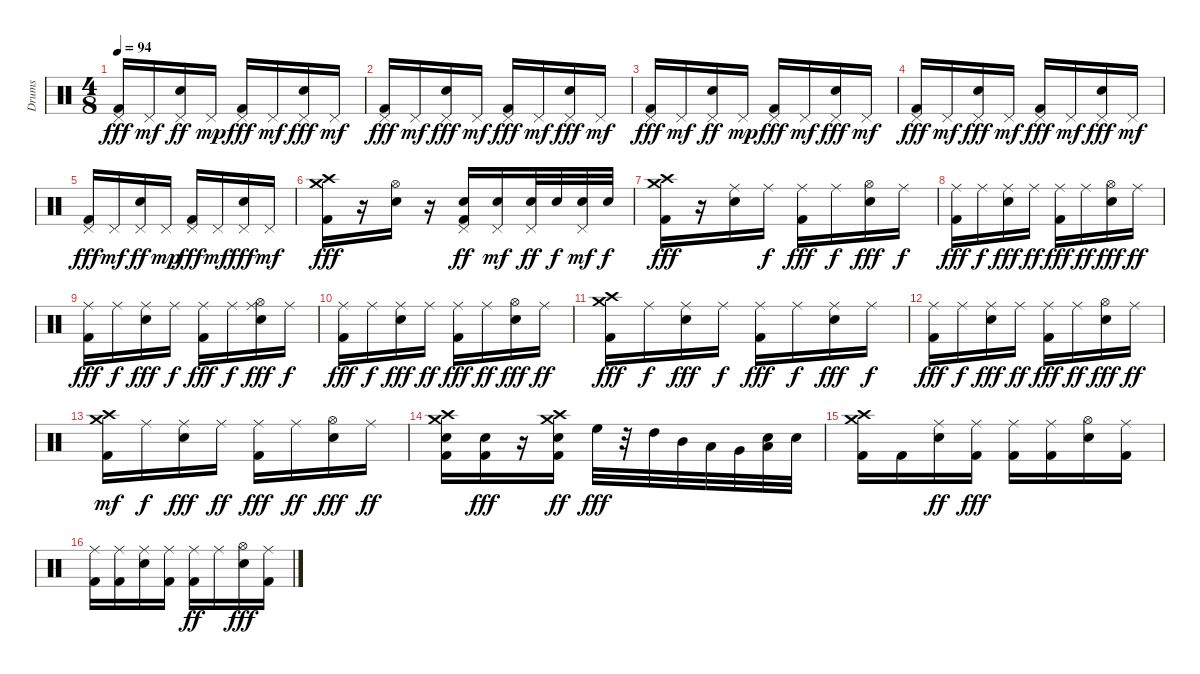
\track ("Drums" "Drums") {instrument percussion}
\staff {score}
\articulation defaults
\ts (4 8)
\tempo 94
\clef neutral
\ks c
("Pedal Hi-Hat (hit)" "Kick (hit) 2").16{dy fff} "Pedal Hi-Hat (hit)".16{dy mf} ("Electric Snare (hit)" "Pedal Hi-Hat (hit)").16{dy ff} "Pedal Hi-Hat (hit)".16{dy mp} ("Pedal Hi-Hat (hit)" "Kick (hit) 2").16{dy fff} "Pedal Hi-Hat (hit)".16{dy mf} ("Pedal Hi-Hat (hit)" "Electric Snare (hit)").16{dy fff} "Pedal Hi-Hat (hit)".16{dy mf} |
("Pedal Hi-Hat (hit)" "Kick (hit) 2").16{dy fff} "Pedal Hi-Hat (hit)".16{dy mf} ("Pedal Hi-Hat (hit)" "Electric Snare (hit)").16{dy fff} "Pedal Hi-Hat (hit)".16{dy mf} ("Pedal Hi-Hat (hit)" "Kick (hit) 2").16{dy fff} "Pedal Hi-Hat (hit)".16{dy mf} ("Pedal Hi-Hat (hit)" "Electric Snare (hit)").16{dy fff} "Pedal Hi-Hat (hit)".16{dy mf} |
("Pedal Hi-Hat (hit)" "Kick (hit) 2").16{dy fff} "Pedal Hi-Hat (hit)".16{dy mf} ("Electric Snare (hit)" "Pedal Hi-Hat (hit)").16{dy ff} "Pedal Hi-Hat (hit)".16{dy mp} ("Pedal Hi-Hat (hit)" "Kick (hit) 2").16{dy fff} "Pedal Hi-Hat (hit)".16{dy mf} ("Pedal Hi-Hat (hit)" "Electric Snare (hit)").16{dy fff} "Pedal Hi-Hat (hit)".16{dy mf} |
("Pedal Hi-Hat (hit)" "Kick (hit) 2").16{dy fff} "Pedal Hi-Hat (hit)".16{dy mf} ("Pedal Hi-Hat (hit)" "Electric Snare (hit)").16{dy fff} "Pedal Hi-Hat (hit)".16{dy mf} ("Pedal Hi-Hat (hit)" "Kick (hit) 2").16{dy fff} "Pedal Hi-Hat (hit)".16{dy mf} ("Pedal Hi-Hat (hit)" "Electric Snare (hit)").16{dy fff} "Pedal Hi-Hat (hit)".16{dy mf} |
("Pedal Hi-Hat (hit)" "Kick (hit) 2").16{dy fff} "Pedal Hi-Hat (hit)".16{dy mf} ("Electric Snare (hit)" "Pedal Hi-Hat (hit)").16{dy ff} "Pedal Hi-Hat (hit)".16{dy mp} ("Pedal Hi-Hat (hit)" "Kick (hit) 2").16{dy fff} "Pedal Hi-Hat (hit)".16{dy mf} ("Pedal Hi-Hat (hit)" "Electric Snare (hit)").16{dy fff} "Pedal Hi-Hat (hit)".16{dy mf} |
("Crash medium (hit)" "Crash high (hit)" "Kick (hit) 2").16{dy fff} r.16 ("Hi-Hat (open)" "Electric Snare (hit)").16 r.16 ("Kick (hit) 2" "Electric Snare (hit)" "Pedal Hi-Hat (hit)").16{dy ff} ("Electric Snare (hit)" "Pedal Hi-Hat (hit)").16{dy mf} ("Electric Snare (hit)" "Pedal Hi-Hat (hit)").32{dy ff} "Electric Snare (hit)".32{dy f} ("Electric Snare (hit)" "Pedal Hi-Hat (hit)").32{dy mf} "Electric Snare (hit)".32{dy f} |
("Crash medium (hit)" "Crash high (hit)" "Kick (hit) 2").16{dy fff} r.16 ("Ride (middle)" "Electric Snare (hit)").16 "Ride (middle)".16{dy f} ("Ride (middle)" "Kick (hit) 2").16{dy fff} "Ride (middle)".16{dy f} ("Hi-Hat (open)" "Electric Snare (hit)").16{dy fff} "Ride (middle)".16{dy f} |
("Ride (middle)" "Kick (hit) 2").16{dy fff} "Ride (middle)".16{dy f} ("Ride (middle)" "Electric Snare (hit)").16{dy fff} "Ride (middle)".16{dy ff} ("Ride (middle)" "Kick (hit) 2").16{dy fff} "Ride (middle)".16{dy ff} ("Hi-Hat (open)" "Electric Snare (hit)").16{dy fff} "Ride (middle)".16{dy ff} |
("Ride (middle)" "Kick (hit) 2").16{dy fff} "Ride (middle)".16{dy f} ("Ride (middle)" "Electric Snare (hit)").16{dy fff} "Ride (middle)".16{dy f} ("Ride (middle)" "Kick (hit) 2").16{dy fff} "Ride (middle)".16{dy f} ("Hi-Hat (open)" "Ride (middle)" "Electric Snare (hit)").16{dy fff} "Ride (middle)".16{dy f} |
("Ride (middle)" "Kick (hit) 2").16{dy fff} "Ride (middle)".16{dy f} ("Ride (middle)" "Electric Snare (hit)").16{dy fff} "Ride (middle)".16{dy ff} ("Ride (middle)" "Kick (hit) 2").16{dy fff} "Ride (middle)".16{dy ff} ("Hi-Hat (open)" "Electric Snare (hit)").16{dy fff} "Ride (middle)".16{dy ff} |
("Crash medium (hit)" "Crash high (hit)" "Kick (hit) 2").16{dy fff} "Ride (middle)".16{dy f} ("Ride (middle)" "Electric Snare (hit)").16{dy fff} "Ride (middle)".16{dy f} ("Ride (middle)" "Kick (hit) 2").16{dy fff} "Ride (middle)".16{dy f} ("Ride (middle)" "Electric Snare (hit)").16{dy fff} "Ride (middle)".16{dy f} |
("Ride (middle)" "Kick (hit) 2").16{dy fff} "Ride (middle)".16{dy f} ("Ride (middle)" "Electric Snare (hit)").16{dy fff} "Ride (middle)".16{dy ff} ("Ride (middle)" "Kick (hit) 2").16{dy fff} "Ride (middle)".16{dy ff} ("Hi-Hat (open)" "Electric Snare (hit)").16{dy fff} "Ride (middle)".16{dy ff} |
("Crash high (hit)" "Kick (hit) 2" "Crash medium (hit)").16{dy mf} "Ride (middle)".16{dy f} ("Ride (middle)" "Electric Snare (hit)").16{dy fff} "Ride (middle)".16{dy ff} ("Ride (middle)" "Kick (hit) 2").16{dy fff} "Ride (middle)".16{dy ff} ("Hi-Hat (open)" "Electric Snare (hit)").16{dy fff} "Ride (middle)".16{dy ff} |
("Electric Snare (hit)" "Kick (hit) 2" "Crash high (hit)" "Crash medium (hit)").16 ("Kick (hit) 2" "Electric Snare (hit)").16{dy fff} r.16 ("Kick (hit) 2" "Electric Snare (hit)" "Crash medium (hit)" "Crash high (hit)").16{dy ff} "High Floor Tom (hit)".32{dy fff} r.32 "High Tom (hit)".32 "Mid Tom (hit)".32 "Low Tom (hit)".32 "Very Low Tom (hit)".32 ("Electric Snare (hit)" "Low Floor Tom (hit)").32 "Electric Snare (hit)".32 |
("Kick (hit) 2" "Crash high (hit)" "Crash medium (hit)").16 "Kick (hit) 2".16 ("Electric Snare (hit)" "Ride (middle)").16{dy ff} ("Ride (middle)" "Kick (hit) 2").16{dy fff} ("Ride (middle)" "Kick (hit) 2").16 ("Kick (hit) 2" "Ride (middle)").16 ("Hi-Hat (open)" "Electric Snare (hit)").16 ("Kick (hit) 2" "Ride (middle)").16 |
("Ride (middle)" "Kick (hit) 2").16 ("Ride (middle)" "Kick (hit) 2").16 ("Ride (middle)" "Electric Snare (hit)").16 ("Ride (middle)" "Kick (hit) 2").16 ("Kick (hit) 2" "Ride (middle)").16{dy ff} "Ride (middle)".16 ("Hi-Hat (open)" "Electric Snare (hit)").16{dy fff} ("Ride (middle)" "Kick (hit) 2").16
